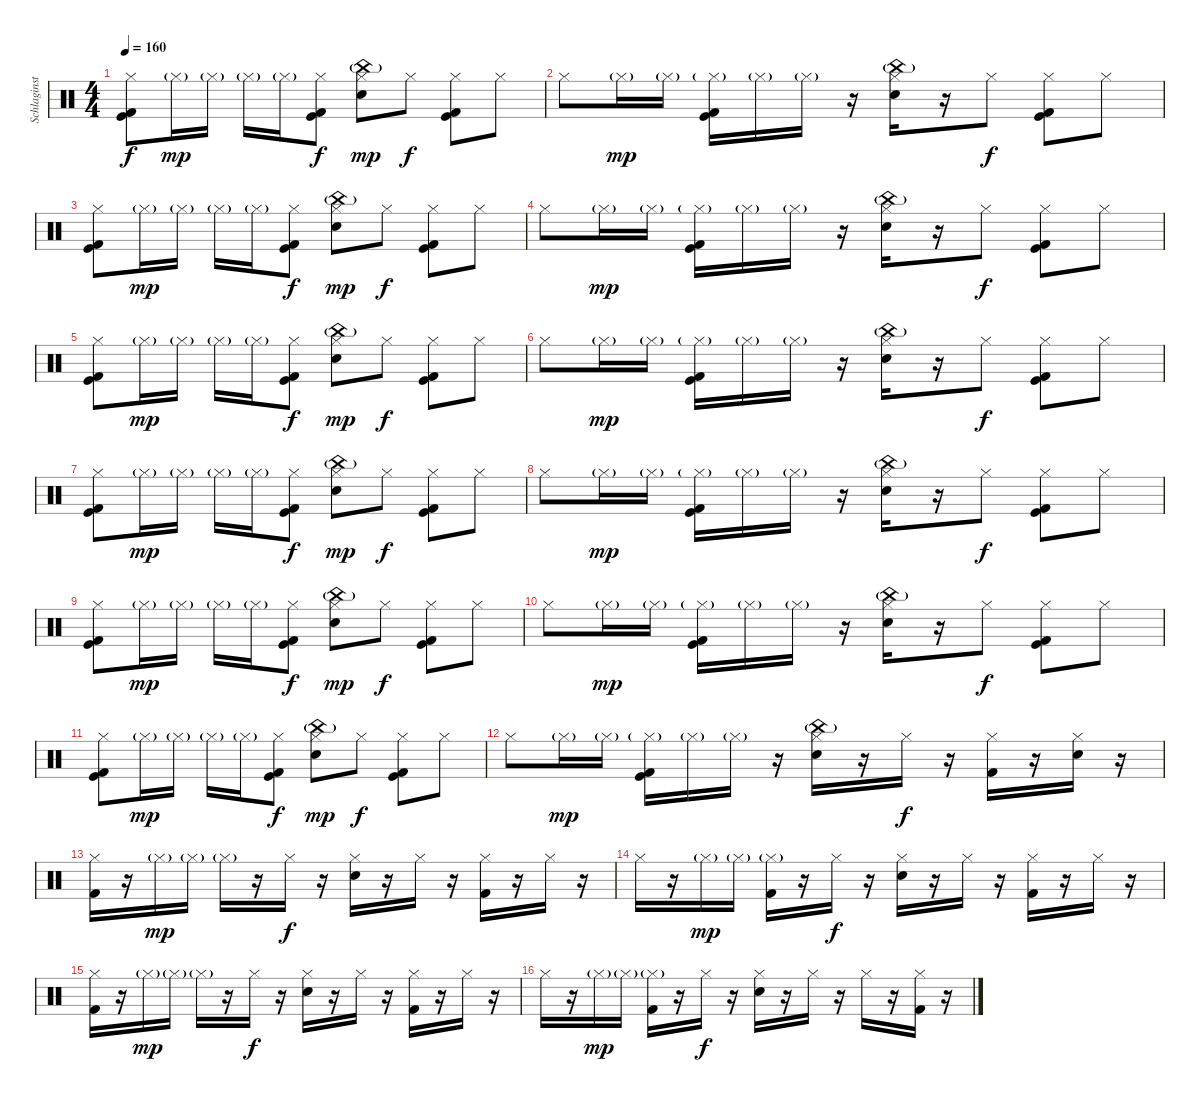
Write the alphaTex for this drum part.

\track ("Schlaginstrumente - Auswahl" "Schlaginst") {instrument percussion}
\staff {score}
\articulation defaults
\ts (4 4)
\tempo 160
\clef neutral
\ks c
("Hi-Hat (closed)" "Kick (hit)" "Kick (hit) 2").8{dy f} "Hi-Hat (closed)"{g}.16{dy mp} "Hi-Hat (closed)"{g}.16 "Hi-Hat (closed)"{g}.16 "Hi-Hat (closed)"{g}.16 ("Hi-Hat (closed)" "Kick (hit)" "Kick (hit) 2").8{dy f} ("Hi-Hat (closed)" "China (hit)"{g} "Snare (hit) 2").8{dy mp} "Hi-Hat (closed)".8{dy f} ("Hi-Hat (closed)" "Kick (hit)" "Kick (hit) 2").8 "Hi-Hat (closed)".8 |
"Hi-Hat (closed)".8 "Hi-Hat (closed)"{g}.16{dy mp} "Hi-Hat (closed)"{g}.16 ("Hi-Hat (closed)"{g} "Kick (hit)" "Kick (hit) 2").16 "Hi-Hat (closed)"{g}.16 "Hi-Hat (closed)"{g}.16 r.16 ("Hi-Hat (closed)" "China (hit)"{g} "Snare (hit) 2").16 r.16 "Hi-Hat (closed)".8{dy f} ("Hi-Hat (closed)" "Kick (hit)" "Kick (hit) 2").8 "Hi-Hat (closed)".8 |
("Hi-Hat (closed)" "Kick (hit)" "Kick (hit) 2").8 "Hi-Hat (closed)"{g}.16{dy mp} "Hi-Hat (closed)"{g}.16 "Hi-Hat (closed)"{g}.16 "Hi-Hat (closed)"{g}.16 ("Hi-Hat (closed)" "Kick (hit)" "Kick (hit) 2").8{dy f} ("Hi-Hat (closed)" "China (hit)"{g} "Snare (hit) 2").8{dy mp} "Hi-Hat (closed)".8{dy f} ("Hi-Hat (closed)" "Kick (hit)" "Kick (hit) 2").8 "Hi-Hat (closed)".8 |
"Hi-Hat (closed)".8 "Hi-Hat (closed)"{g}.16{dy mp} "Hi-Hat (closed)"{g}.16 ("Hi-Hat (closed)"{g} "Kick (hit)" "Kick (hit) 2").16 "Hi-Hat (closed)"{g}.16 "Hi-Hat (closed)"{g}.16 r.16 ("Hi-Hat (closed)" "China (hit)"{g} "Snare (hit) 2").16 r.16 "Hi-Hat (closed)".8{dy f} ("Hi-Hat (closed)" "Kick (hit)" "Kick (hit) 2").8 "Hi-Hat (closed)".8 |
("Hi-Hat (closed)" "Kick (hit)" "Kick (hit) 2").8 "Hi-Hat (closed)"{g}.16{dy mp} "Hi-Hat (closed)"{g}.16 "Hi-Hat (closed)"{g}.16 "Hi-Hat (closed)"{g}.16 ("Hi-Hat (closed)" "Kick (hit)" "Kick (hit) 2").8{dy f} ("Hi-Hat (closed)" "China (hit)"{g} "Snare (hit) 2").8{dy mp} "Hi-Hat (closed)".8{dy f} ("Hi-Hat (closed)" "Kick (hit)" "Kick (hit) 2").8 "Hi-Hat (closed)".8 |
"Hi-Hat (closed)".8 "Hi-Hat (closed)"{g}.16{dy mp} "Hi-Hat (closed)"{g}.16 ("Hi-Hat (closed)"{g} "Kick (hit)" "Kick (hit) 2").16 "Hi-Hat (closed)"{g}.16 "Hi-Hat (closed)"{g}.16 r.16 ("Hi-Hat (closed)" "China (hit)"{g} "Snare (hit) 2").16 r.16 "Hi-Hat (closed)".8{dy f} ("Hi-Hat (closed)" "Kick (hit)" "Kick (hit) 2").8 "Hi-Hat (closed)".8 |
("Hi-Hat (closed)" "Kick (hit)" "Kick (hit) 2").8 "Hi-Hat (closed)"{g}.16{dy mp} "Hi-Hat (closed)"{g}.16 "Hi-Hat (closed)"{g}.16 "Hi-Hat (closed)"{g}.16 ("Hi-Hat (closed)" "Kick (hit)" "Kick (hit) 2").8{dy f} ("Hi-Hat (closed)" "China (hit)"{g} "Snare (hit) 2").8{dy mp} "Hi-Hat (closed)".8{dy f} ("Hi-Hat (closed)" "Kick (hit)" "Kick (hit) 2").8 "Hi-Hat (closed)".8 |
"Hi-Hat (closed)".8 "Hi-Hat (closed)"{g}.16{dy mp} "Hi-Hat (closed)"{g}.16 ("Hi-Hat (closed)"{g} "Kick (hit)" "Kick (hit) 2").16 "Hi-Hat (closed)"{g}.16 "Hi-Hat (closed)"{g}.16 r.16 ("Hi-Hat (closed)" "China (hit)"{g} "Snare (hit) 2").16 r.16 "Hi-Hat (closed)".8{dy f} ("Hi-Hat (closed)" "Kick (hit)" "Kick (hit) 2").8 "Hi-Hat (closed)".8 |
("Hi-Hat (closed)" "Kick (hit)" "Kick (hit) 2").8 "Hi-Hat (closed)"{g}.16{dy mp} "Hi-Hat (closed)"{g}.16 "Hi-Hat (closed)"{g}.16 "Hi-Hat (closed)"{g}.16 ("Hi-Hat (closed)" "Kick (hit)" "Kick (hit) 2").8{dy f} ("Hi-Hat (closed)" "China (hit)"{g} "Snare (hit) 2").8{dy mp} "Hi-Hat (closed)".8{dy f} ("Hi-Hat (closed)" "Kick (hit)" "Kick (hit) 2").8 "Hi-Hat (closed)".8 |
"Hi-Hat (closed)".8 "Hi-Hat (closed)"{g}.16{dy mp} "Hi-Hat (closed)"{g}.16 ("Hi-Hat (closed)"{g} "Kick (hit)" "Kick (hit) 2").16 "Hi-Hat (closed)"{g}.16 "Hi-Hat (closed)"{g}.16 r.16 ("Hi-Hat (closed)" "China (hit)"{g} "Snare (hit) 2").16 r.16 "Hi-Hat (closed)".8{dy f} ("Hi-Hat (closed)" "Kick (hit)" "Kick (hit) 2").8 "Hi-Hat (closed)".8 |
("Hi-Hat (closed)" "Kick (hit)" "Kick (hit) 2").8 "Hi-Hat (closed)"{g}.16{dy mp} "Hi-Hat (closed)"{g}.16 "Hi-Hat (closed)"{g}.16 "Hi-Hat (closed)"{g}.16 ("Hi-Hat (closed)" "Kick (hit)" "Kick (hit) 2").8{dy f} ("Hi-Hat (closed)" "China (hit)"{g} "Snare (hit) 2").8{dy mp} "Hi-Hat (closed)".8{dy f} ("Hi-Hat (closed)" "Kick (hit)" "Kick (hit) 2").8 "Hi-Hat (closed)".8 |
"Hi-Hat (closed)".8 "Hi-Hat (closed)"{g}.16{dy mp} "Hi-Hat (closed)"{g}.16 ("Hi-Hat (closed)"{g} "Kick (hit)" "Kick (hit) 2").16 "Hi-Hat (closed)"{g}.16 "Hi-Hat (closed)"{g}.16 r.16 ("Hi-Hat (closed)" "China (hit)"{g} "Snare (hit) 2").16 r.16 "Hi-Hat (closed)".16{dy f} r.16 ("Hi-Hat (closed)" "Kick (hit) 2").16 r.16 ("Hi-Hat (closed)" "Snare (hit) 2").16 r.16 |
("Hi-Hat (closed)" "Kick (hit) 2").16 r.16 "Hi-Hat (closed)"{g}.16{dy mp} "Hi-Hat (closed)"{g}.16 "Hi-Hat (closed)"{g}.16 r.16 "Hi-Hat (closed)".16{dy f} r.16 ("Hi-Hat (closed)" "Snare (hit) 2").16 r.16 "Hi-Hat (closed)".16 r.16 ("Hi-Hat (closed)" "Kick (hit) 2").16 r.16 "Hi-Hat (closed)".16 r.16 |
"Hi-Hat (closed)".16 r.16 "Hi-Hat (closed)"{g}.16{dy mp} "Hi-Hat (closed)"{g}.16 ("Hi-Hat (closed)"{g} "Kick (hit) 2").16 r.16 "Hi-Hat (closed)".16{dy f} r.16 ("Hi-Hat (closed)" "Snare (hit) 2").16 r.16 "Hi-Hat (closed)".16 r.16 ("Hi-Hat (closed)" "Kick (hit) 2").16 r.16 "Hi-Hat (closed)".16 r.16 |
("Hi-Hat (closed)" "Kick (hit) 2").16 r.16 "Hi-Hat (closed)"{g}.16{dy mp} "Hi-Hat (closed)"{g}.16 "Hi-Hat (closed)"{g}.16 r.16 "Hi-Hat (closed)".16{dy f} r.16 ("Hi-Hat (closed)" "Snare (hit) 2").16 r.16 "Hi-Hat (closed)".16 r.16 ("Hi-Hat (closed)" "Kick (hit) 2").16 r.16 "Hi-Hat (closed)".16 r.16 |
"Hi-Hat (closed)".16 r.16 "Hi-Hat (closed)"{g}.16{dy mp} "Hi-Hat (closed)"{g}.16 ("Hi-Hat (closed)"{g} "Kick (hit) 2").16 r.16 "Hi-Hat (closed)".16{dy f} r.16 ("Hi-Hat (closed)" "Snare (hit) 2").16 r.16 "Hi-Hat (closed)".16 r.16 "Hi-Hat (closed)".16 r.16 ("Hi-Hat (closed)" "Kick (hit) 2").16 r.16
